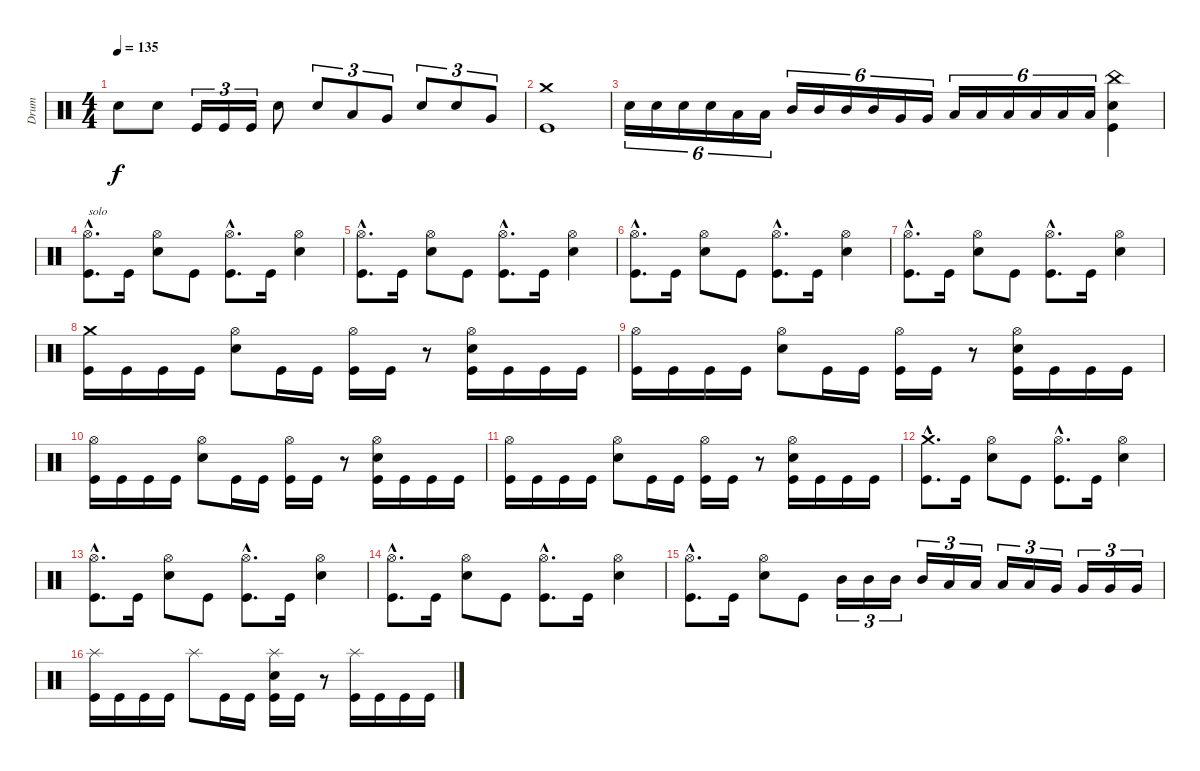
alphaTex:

\track ("Drum" "Drum") {instrument percussion}
\staff {score}
\articulation defaults
\ts (4 4)
\tempo 135
\clef neutral
\ks c "Electric Snare (hit)".8{dy f} "Electric Snare (hit)".8 "Kick (hit)".16{tu (3 2)} "Kick (hit)".16{tu (3 2)} "Kick (hit)".16{tu (3 2)} "Electric Snare (hit)".8 "Electric Snare (hit)".8{tu (3 2)} "Low Tom (hit)".8{tu (3 2)} "Very Low Tom (hit)".8{tu (3 2)} "Electric Snare (hit)".8{tu (3 2)} "Electric Snare (hit)".8{tu (3 2)} "Very Low Tom (hit)".8{tu (3 2)}
|
("Kick (hit)" "Crash medium (hit)").1 |
"Electric Snare (hit)".16{tu (6 4)} "Electric Snare (hit)".16{tu (6 4)} "Electric Snare (hit)".16{tu (6 4)} "Electric Snare (hit)".16{tu (6 4)} "Low Tom (hit)".16{tu (6 4)} "Low Tom (hit)".16{tu (6 4)} "Mid Tom (hit)".16{tu (6 4)} "Mid Tom (hit)".16{tu (6 4)} "Mid Tom (hit)".16{tu (6 4)} "Mid Tom (hit)".16{tu (6 4)} "Very Low Tom (hit)".16{tu (6 4)} "Very Low Tom (hit)".16{tu (6 4)} "Low Tom (hit)".16{tu (6 4)} "Low Tom (hit)".16{tu (6 4)} "Low Tom (hit)".16{tu (6 4)} "Low Tom (hit)".16{tu (6 4)} "Low Floor Tom (hit)".16{tu (6 4)} "Low Floor Tom (hit)".16{tu (6 4)} ("Kick (hit)" "Electric Snare (hit)" "China (hit)").4 |
("Kick (hit)"{hac} "Hi-Hat (open)"{hac}).8{d txt "solo"} "Kick (hit)".16 ("Electric Snare (hit)" "Hi-Hat (open)").8 "Kick (hit)".8 ("Kick (hit)"{hac} "Hi-Hat (open)"{hac}).8{d} "Kick (hit)".16 ("Electric Snare (hit)" "Hi-Hat (open)").4 |
("Kick (hit)"{hac} "Hi-Hat (open)"{hac}).8{d} "Kick (hit)".16 ("Electric Snare (hit)" "Hi-Hat (open)").8 "Kick (hit)".8 ("Kick (hit)"{hac} "Hi-Hat (open)"{hac}).8{d} "Kick (hit)".16 ("Electric Snare (hit)" "Hi-Hat (open)").4 |
("Kick (hit)"{hac} "Hi-Hat (open)"{hac}).8{d} "Kick (hit)".16 ("Electric Snare (hit)" "Hi-Hat (open)").8 "Kick (hit)".8 ("Kick (hit)"{hac} "Hi-Hat (open)"{hac}).8{d} "Kick (hit)".16 ("Electric Snare (hit)" "Hi-Hat (open)").4 |
("Kick (hit)"{hac} "Hi-Hat (open)"{hac}).8{d} "Kick (hit)".16 ("Electric Snare (hit)" "Hi-Hat (open)").8 "Kick (hit)".8 ("Kick (hit)"{hac} "Hi-Hat (open)"{hac}).8{d} "Kick (hit)".16 ("Electric Snare (hit)" "Hi-Hat (open)").4 |
("Kick (hit)" "Crash medium (hit)").16 "Kick (hit)".16 "Kick (hit)".16 "Kick (hit)".16 ("Electric Snare (hit)" "Hi-Hat (open)").8 "Kick (hit)".16 "Kick (hit)".16 ("Kick (hit)" "Hi-Hat (open)").16 "Kick (hit)".16 r.8 ("Kick (hit)" "Electric Snare (hit)" "Hi-Hat (open)").16 "Kick (hit)".16 "Kick (hit)".16 "Kick (hit)".16 |
("Kick (hit)" "Hi-Hat (open)").16 "Kick (hit)".16 "Kick (hit)".16 "Kick (hit)".16 ("Electric Snare (hit)" "Hi-Hat (open)").8 "Kick (hit)".16 "Kick (hit)".16 ("Kick (hit)" "Hi-Hat (open)").16 "Kick (hit)".16 r.8 ("Kick (hit)" "Electric Snare (hit)" "Hi-Hat (open)").16 "Kick (hit)".16 "Kick (hit)".16 "Kick (hit)".16 |
("Kick (hit)" "Hi-Hat (open)").16 "Kick (hit)".16 "Kick (hit)".16 "Kick (hit)".16 ("Electric Snare (hit)" "Hi-Hat (open)").8 "Kick (hit)".16 "Kick (hit)".16 ("Kick (hit)" "Hi-Hat (open)").16 "Kick (hit)".16 r.8 ("Kick (hit)" "Electric Snare (hit)" "Hi-Hat (open)").16 "Kick (hit)".16 "Kick (hit)".16 "Kick (hit)".16 |
("Kick (hit)" "Hi-Hat (open)").16 "Kick (hit)".16 "Kick (hit)".16 "Kick (hit)".16 ("Electric Snare (hit)" "Hi-Hat (open)").8 "Kick (hit)".16 "Kick (hit)".16 ("Kick (hit)" "Hi-Hat (open)").16 "Kick (hit)".16 r.8 ("Kick (hit)" "Electric Snare (hit)" "Hi-Hat (open)").16 "Kick (hit)".16 "Kick (hit)".16 "Kick (hit)".16 |
("Kick (hit)"{hac} "Crash medium (hit)"{hac}).8{d} "Kick (hit)".16 ("Electric Snare (hit)" "Hi-Hat (open)").8 "Kick (hit)".8 ("Kick (hit)"{hac} "Hi-Hat (open)"{hac}).8{d} "Kick (hit)".16 ("Electric Snare (hit)" "Hi-Hat (open)").4 |
("Kick (hit)"{hac} "Hi-Hat (open)"{hac}).8{d} "Kick (hit)".16 ("Electric Snare (hit)" "Hi-Hat (open)").8 "Kick (hit)".8 ("Kick (hit)"{hac} "Hi-Hat (open)"{hac}).8{d} "Kick (hit)".16 ("Electric Snare (hit)" "Hi-Hat (open)").4 |
("Kick (hit)"{hac} "Hi-Hat (open)"{hac}).8{d} "Kick (hit)".16 ("Electric Snare (hit)" "Hi-Hat (open)").8 "Kick (hit)".8 ("Kick (hit)"{hac} "Hi-Hat (open)"{hac}).8{d} "Kick (hit)".16 ("Electric Snare (hit)" "Hi-Hat (open)").4 |
("Kick (hit)"{hac} "Hi-Hat (open)"{hac}).8{d} "Kick (hit)".16 ("Electric Snare (hit)" "Hi-Hat (open)").8 "Kick (hit)".8 "Mid Tom (hit)".16{tu (3 2)} "Mid Tom (hit)".16{tu (3 2)} "Mid Tom (hit)".16{tu (3 2)} "Mid Tom (hit)".16{tu (3 2)} "Low Tom (hit)".16{tu (3 2)} "Low Tom (hit)".16{tu (3 2)} "Low Tom (hit)".16{tu (3 2)} "Low Tom (hit)".16{tu (3 2)} "Very Low Tom (hit)".16{tu (3 2)} "Very Low Tom (hit)".16{tu (3 2)} "Very Low Tom (hit)".16{tu (3 2)} "Very Low Tom (hit)".16{tu (3 2)} |
("Kick (hit)" "Splash (hit)").16 "Kick (hit)".16 "Kick (hit)".16 "Kick (hit)".16 "Splash (hit)".8 "Kick (hit)".16 "Kick (hit)".16 ("Kick (hit)" "Electric Snare (hit)" "Splash (hit)").16 "Kick (hit)".16 r.8 ("Kick (hit)" "Splash (hit)").16 "Kick (hit)".16 "Kick (hit)".16 "Kick (hit)".16
